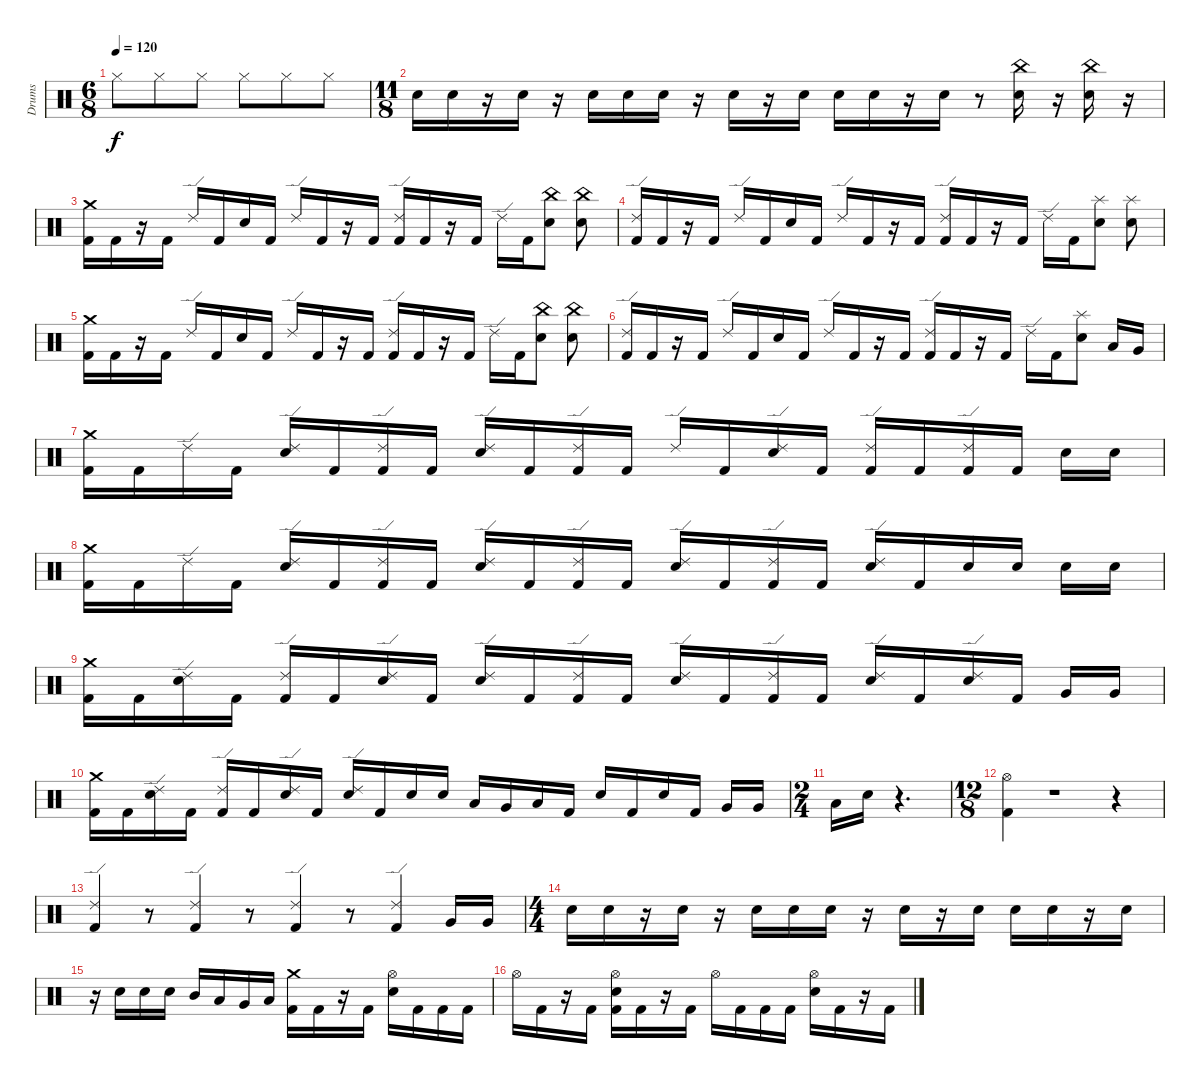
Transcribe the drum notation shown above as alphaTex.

\track ("Drums" "Drums") {instrument percussion}
\staff {score}
\articulation defaults
\ts (6 8)
\tempo 120
\clef neutral
\ks c "Hi-Hat (closed)".8{dy f} "Hi-Hat (closed)".8 "Hi-Hat (closed)".8 "Hi-Hat (closed)".8 "Hi-Hat (closed)".8 "Hi-Hat (closed)".8
|
\ts (11 8)
"Electric Snare (hit)".16 "Electric Snare (hit)".16 r.16 "Electric Snare (hit)".16 r.16 "Electric Snare (hit)".16 "Electric Snare (hit)".16 "Electric Snare (hit)".16 r.16 "Electric Snare (hit)".16 r.16 "Electric Snare (hit)".16 "Electric Snare (hit)".16 "Electric Snare (hit)".16 r.16 "Electric Snare (hit)".16 r.8 ("China (hit)" "Electric Snare (hit)").16 r.16 ("China (hit)" "Electric Snare (hit)").16 r.16 |
("Crash medium (hit)" "Kick (hit) 2").16 "Kick (hit) 2".16 r.16 "Kick (hit) 2".16 "Ride (edge) 2".16 "Kick (hit) 2".16 "Electric Snare (hit)".16 "Kick (hit) 2".16 "Ride (edge) 2".16 "Kick (hit) 2".16 r.16 "Kick (hit) 2".16 ("Ride (edge) 2" "Kick (hit) 2").16 "Kick (hit) 2".16 r.16 "Kick (hit) 2".16 "Ride (edge) 2".16 "Kick (hit) 2".16 ("China (hit)" "Electric Snare (hit)").8 ("China (hit)" "Electric Snare (hit)").8 |
("Ride (edge) 2" "Kick (hit) 2").16 "Kick (hit) 2".16 r.16 "Kick (hit) 2".16 "Ride (edge) 2".16 "Kick (hit) 2".16 "Electric Snare (hit)".16 "Kick (hit) 2".16 "Ride (edge) 2".16 "Kick (hit) 2".16 r.16 "Kick (hit) 2".16 ("Ride (edge) 2" "Kick (hit) 2").16 "Kick (hit) 2".16 r.16 "Kick (hit) 2".16 "Ride (edge) 2".16 "Kick (hit) 2".16 ("Splash (hit)" "Electric Snare (hit)").8 ("Splash (hit)" "Electric Snare (hit)").8 |
("Crash medium (hit)" "Kick (hit) 2").16 "Kick (hit) 2".16 r.16 "Kick (hit) 2".16 "Ride (edge) 2".16 "Kick (hit) 2".16 "Electric Snare (hit)".16 "Kick (hit) 2".16 "Ride (edge) 2".16 "Kick (hit) 2".16 r.16 "Kick (hit) 2".16 ("Ride (edge) 2" "Kick (hit) 2").16 "Kick (hit) 2".16 r.16 "Kick (hit) 2".16 "Ride (edge) 2".16 "Kick (hit) 2".16 ("China (hit)" "Electric Snare (hit)").8 ("China (hit)" "Electric Snare (hit)").8 |
("Ride (edge) 2" "Kick (hit) 2").16 "Kick (hit) 2".16 r.16 "Kick (hit) 2".16 "Ride (edge) 2".16 "Kick (hit) 2".16 "Electric Snare (hit)".16 "Kick (hit) 2".16 "Ride (edge) 2".16 "Kick (hit) 2".16 r.16 "Kick (hit) 2".16 ("Ride (edge) 2" "Kick (hit) 2").16 "Kick (hit) 2".16 r.16 "Kick (hit) 2".16 "Ride (edge) 2".16 "Kick (hit) 2".16 ("Splash (hit)" "Electric Snare (hit)").8 "Low Tom (hit)".16 "Very Low Tom (hit)".16 |
("Crash medium (hit)" "Kick (hit) 2").16 "Kick (hit) 2".16 "Ride (edge) 2".16 "Kick (hit) 2".16 ("Ride (edge) 2" "Electric Snare (hit)").16 "Kick (hit) 2".16 ("Ride (edge) 2" "Kick (hit) 2").16 "Kick (hit) 2".16 ("Ride (edge) 2" "Electric Snare (hit)").16 "Kick (hit) 2".16 ("Ride (edge) 2" "Kick (hit) 2").16 "Kick (hit) 2".16 "Ride (edge) 2".16 "Kick (hit) 2".16 ("Ride (edge) 2" "Electric Snare (hit)").16 "Kick (hit) 2".16 ("Ride (edge) 2" "Kick (hit) 2").16 "Kick (hit) 2".16 ("Ride (edge) 2" "Kick (hit) 2").16 "Kick (hit) 2".16 "Electric Snare (hit)".16 "Electric Snare (hit)".16 |
("Crash medium (hit)" "Kick (hit) 2").16{volume 16 balance 8} "Kick (hit) 2".16 "Ride (edge) 2".16 "Kick (hit) 2".16 ("Ride (edge) 2" "Electric Snare (hit)").16 "Kick (hit) 2".16 ("Ride (edge) 2" "Kick (hit) 2").16 "Kick (hit) 2".16 ("Ride (edge) 2" "Electric Snare (hit)").16 "Kick (hit) 2".16 ("Ride (edge) 2" "Kick (hit) 2").16 "Kick (hit) 2".16 ("Electric Snare (hit)" "Ride (edge) 2").16 "Kick (hit) 2".16 ("Kick (hit) 2" "Ride (edge) 2").16 "Kick (hit) 2".16 ("Electric Snare (hit)" "Ride (edge) 2").16 "Kick (hit) 2".16 "Electric Snare (hit)".16 "Electric Snare (hit)".16 "Electric Snare (hit)".16 "Electric Snare (hit)".16 |
("Crash medium (hit)" "Kick (hit) 2").16 "Kick (hit) 2".16 ("Electric Snare (hit)" "Ride (edge) 2").16 "Kick (hit) 2".16 ("Kick (hit) 2" "Ride (edge) 2").16 "Kick (hit) 2".16 ("Electric Snare (hit)" "Ride (edge) 2").16 "Kick (hit) 2".16 ("Ride (edge) 2" "Electric Snare (hit)").16 "Kick (hit) 2".16 ("Ride (edge) 2" "Kick (hit) 2").16 "Kick (hit) 2".16 ("Electric Snare (hit)" "Ride (edge) 2").16 "Kick (hit) 2".16 ("Kick (hit) 2" "Ride (edge) 2").16 "Kick (hit) 2".16 ("Electric Snare (hit)" "Ride (edge) 2").16 "Kick (hit) 2".16 ("Electric Snare (hit)" "Ride (edge) 2").16 "Kick (hit) 2".16 "Very Low Tom (hit)".16 "Very Low Tom (hit)".16 |
("Crash medium (hit)" "Kick (hit) 2").16 "Kick (hit) 2".16 ("Electric Snare (hit)" "Ride (edge) 2").16 "Kick (hit) 2".16 ("Kick (hit) 2" "Ride (edge) 2").16 "Kick (hit) 2".16 ("Electric Snare (hit)" "Ride (edge) 2").16 "Kick (hit) 2".16 ("Ride (edge) 2" "Electric Snare (hit)").16 "Kick (hit) 2".16 "Electric Snare (hit)".16 "Electric Snare (hit)".16 "Low Tom (hit)".16 "Very Low Tom (hit)".16 "Low Floor Tom (hit)".16 "Kick (hit) 2".16 "Electric Snare (hit)".16 "Kick (hit) 2".16 "Electric Snare (hit)".16 "Kick (hit) 2".16 "Very Low Tom (hit)".16 "Very Low Tom (hit)".16 |
\ts (2 4)
"Low Floor Tom (hit)".16 "Electric Snare (hit)".16 r.4{d} |
\ts (12 8)
("Hi-Hat (open)" "Kick (hit) 2").4 r.1 r.4 |
("Ride (edge) 2" "Kick (hit) 2").4 r.8 ("Ride (edge) 2" "Kick (hit) 2").4 r.8 ("Ride (edge) 2" "Kick (hit) 2").4 r.8 ("Ride (edge) 2" "Kick (hit) 2").4 "Very Low Tom (hit)".16 "Very Low Tom (hit)".16 |
\ts (4 4)
"Electric Snare (hit)".16 "Electric Snare (hit)".16 r.16 "Electric Snare (hit)".16 r.16 "Electric Snare (hit)".16 "Electric Snare (hit)".16 "Electric Snare (hit)".16 r.16 "Electric Snare (hit)".16 r.16 "Electric Snare (hit)".16 "Electric Snare (hit)".16 "Electric Snare (hit)".16 r.16 "Electric Snare (hit)".16 |
r.16 "Electric Snare (hit)".16 "Electric Snare (hit)".16 "Electric Snare (hit)".16 "Mid Tom (hit)".16 "Low Tom (hit)".16 "Very Low Tom (hit)".16 "Low Floor Tom (hit)".16 ("Kick (hit) 2" "Crash medium (hit)").16 "Kick (hit) 2".16 r.16 "Kick (hit) 2".16 ("Hi-Hat (open)" "Electric Snare (hit)").16 "Kick (hit) 2".16 "Kick (hit) 2".16 "Kick (hit) 2".16 |
"Hi-Hat (open)".16 "Kick (hit) 2".16 r.16 "Kick (hit) 2".16 ("Kick (hit) 2" "Hi-Hat (open)" "Electric Snare (hit)").16 "Kick (hit) 2".16 r.16 "Kick (hit) 2".16 "Hi-Hat (open)".16 "Kick (hit) 2".16 "Kick (hit) 2".16 "Kick (hit) 2".16 ("Electric Snare (hit)" "Hi-Hat (open)").16 "Kick (hit) 2".16 r.16 "Kick (hit) 2".16
